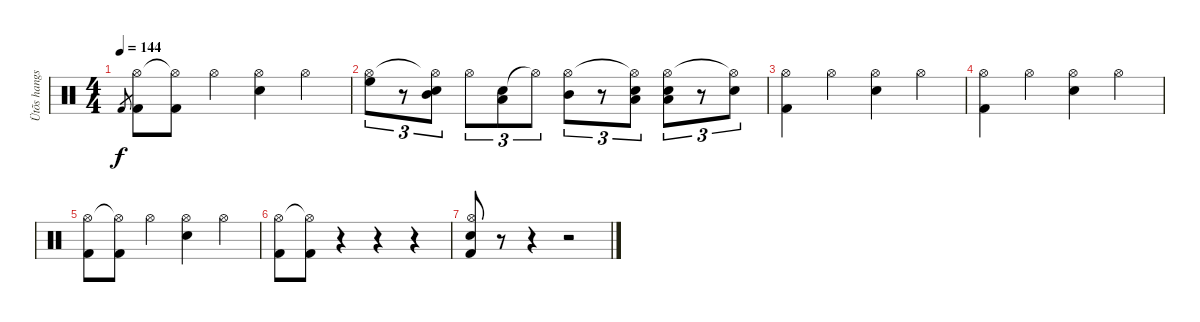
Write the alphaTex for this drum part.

\track ("Ütõs hangszer" "Ütõs hangs") {instrument percussion}
\staff {score}
\articulation defaults
\ts (4 4)
\tempo 144
\clef neutral
\ks c "Kick (hit) 2".8{gr dy f}
("Hi-Hat (open)" "Kick (hit) 2").8 ("Hi-Hat (open)"{t} "Kick (hit) 2").8 "Hi-Hat (open)".4 ("Hi-Hat (open)" "Snare (hit) 2").4 "Hi-Hat (open)".4 |
("Hi-Hat (open)" "High Floor Tom (hit)").8{tu (3 2)} r.8{tu (3 2)} ("Hi-Hat (open)"{t} "Snare (hit) 2" "Mid Tom (hit)").8{tu (3 2)} "Hi-Hat (open)".8{tu (3 2)} ("Snare (hit) 2" "Low Tom (hit)").8{tu (3 2)} "Hi-Hat (open)"{t}.8{tu (3 2)} ("Hi-Hat (open)" "Mid Tom (hit)").8{tu (3 2)} r.8{tu (3 2)} ("Hi-Hat (open)"{t} "Snare (hit) 2" "Low Tom (hit)").8{tu (3 2)} ("Hi-Hat (open)" "Snare (hit) 2" "Low Floor Tom (hit)").8{tu (3 2)} r.8{tu (3 2)} ("Hi-Hat (open)"{t} "Snare (hit) 2").8{tu (3 2)} |
("Hi-Hat (open)" "Kick (hit) 2").4 "Hi-Hat (open)".4 ("Hi-Hat (open)" "Snare (hit) 2").4 "Hi-Hat (open)".4 |
("Hi-Hat (open)" "Kick (hit) 2").4 "Hi-Hat (open)".4 ("Hi-Hat (open)" "Snare (hit) 2").4 "Hi-Hat (open)".4 |
("Hi-Hat (open)" "Kick (hit) 2").8 ("Hi-Hat (open)"{t} "Kick (hit) 2").8 "Hi-Hat (open)".4 ("Hi-Hat (open)" "Snare (hit) 2").4 "Hi-Hat (open)".4 |
("Hi-Hat (open)" "Kick (hit) 2").8 ("Hi-Hat (open)"{t} "Kick (hit) 2").8 r.4 r.4 r.4 |
("Hi-Hat (open)" "Snare (hit) 2" "Kick (hit) 2").8 r.8 r.4 r.2
